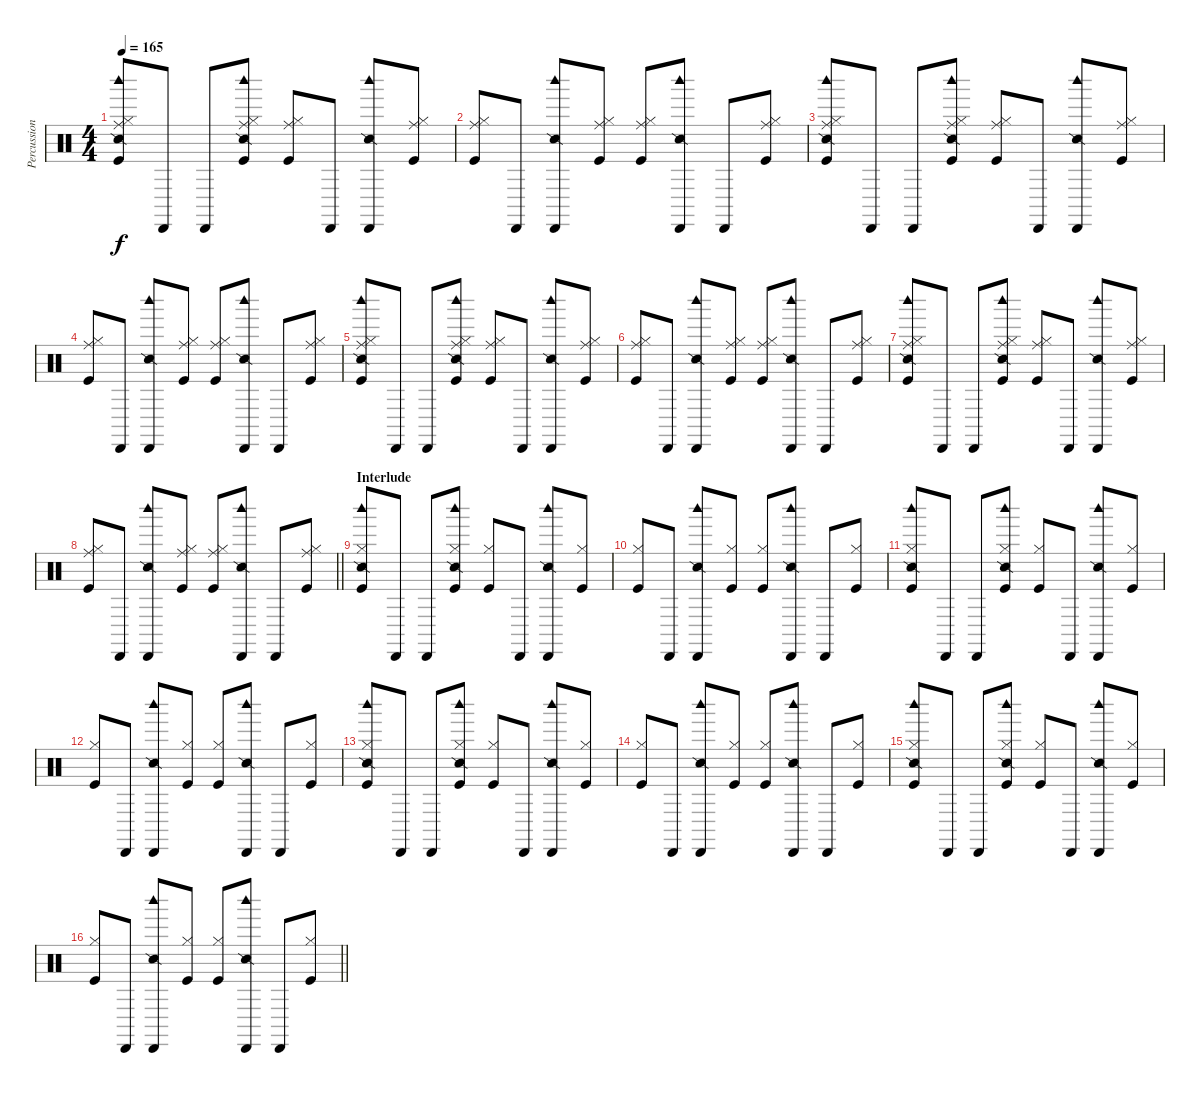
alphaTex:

\track ("Percussion" "Percussion") {instrument percussion}
\staff {score}
\articulation defaults
\ts (4 4)
\tempo 165
\clef neutral
\ks c
("Ride (middle)" "Snare (side stick) 2" "Hi-Hat (closed)" "Woodblock high (hit)" "Kick (hit)").8{dy f} "Cabasa (hit)".8 "Cabasa (hit)".8 ("Ride (middle)" "Snare (side stick) 2" "Hi-Hat (closed)" "Woodblock high (hit)" "Kick (hit)").8 ("Ride (middle)" "Hi-Hat (closed)" "Kick (hit)").8 "Cabasa (hit)".8 ("Snare (side stick) 2" "Cabasa (hit)" "Woodblock high (hit)").8 ("Ride (middle)" "Hi-Hat (closed)" "Kick (hit)").8 |
("Ride (middle)" "Hi-Hat (closed)" "Kick (hit)").8 "Cabasa (hit)".8 ("Snare (side stick) 2" "Cabasa (hit)" "Woodblock high (hit)").8 ("Ride (middle)" "Hi-Hat (closed)" "Kick (hit)").8 ("Ride (middle)" "Hi-Hat (closed)" "Kick (hit)").8 ("Snare (side stick) 2" "Cabasa (hit)" "Woodblock high (hit)").8 "Cabasa (hit)".8 ("Ride (middle)" "Hi-Hat (closed)" "Kick (hit)").8 |
("Ride (middle)" "Snare (side stick) 2" "Hi-Hat (closed)" "Woodblock high (hit)" "Kick (hit)").8 "Cabasa (hit)".8 "Cabasa (hit)".8 ("Ride (middle)" "Snare (side stick) 2" "Hi-Hat (closed)" "Woodblock high (hit)" "Kick (hit)").8 ("Ride (middle)" "Hi-Hat (closed)" "Kick (hit)").8 "Cabasa (hit)".8 ("Snare (side stick) 2" "Cabasa (hit)" "Woodblock high (hit)").8 ("Ride (middle)" "Hi-Hat (closed)" "Kick (hit)").8 |
("Ride (middle)" "Hi-Hat (closed)" "Kick (hit)").8 "Cabasa (hit)".8 ("Snare (side stick) 2" "Cabasa (hit)" "Woodblock high (hit)").8 ("Ride (middle)" "Hi-Hat (closed)" "Kick (hit)").8 ("Ride (middle)" "Hi-Hat (closed)" "Kick (hit)").8 ("Snare (side stick) 2" "Cabasa (hit)" "Woodblock high (hit)").8 "Cabasa (hit)".8 ("Ride (middle)" "Hi-Hat (closed)" "Kick (hit)").8 |
("Ride (middle)" "Snare (side stick) 2" "Hi-Hat (closed)" "Woodblock high (hit)" "Kick (hit)").8 "Cabasa (hit)".8 "Cabasa (hit)".8 ("Ride (middle)" "Snare (side stick) 2" "Hi-Hat (closed)" "Woodblock high (hit)" "Kick (hit)").8 ("Ride (middle)" "Hi-Hat (closed)" "Kick (hit)").8 "Cabasa (hit)".8 ("Snare (side stick) 2" "Cabasa (hit)" "Woodblock high (hit)").8 ("Ride (middle)" "Hi-Hat (closed)" "Kick (hit)").8 |
("Ride (middle)" "Hi-Hat (closed)" "Kick (hit)").8 "Cabasa (hit)".8 ("Snare (side stick) 2" "Cabasa (hit)" "Woodblock high (hit)").8 ("Ride (middle)" "Hi-Hat (closed)" "Kick (hit)").8 ("Ride (middle)" "Hi-Hat (closed)" "Kick (hit)").8 ("Snare (side stick) 2" "Cabasa (hit)" "Woodblock high (hit)").8 "Cabasa (hit)".8 ("Ride (middle)" "Hi-Hat (closed)" "Kick (hit)").8 |
("Ride (middle)" "Snare (side stick) 2" "Hi-Hat (closed)" "Woodblock high (hit)" "Kick (hit)").8 "Cabasa (hit)".8 "Cabasa (hit)".8 ("Ride (middle)" "Snare (side stick) 2" "Hi-Hat (closed)" "Woodblock high (hit)" "Kick (hit)").8 ("Ride (middle)" "Hi-Hat (closed)" "Kick (hit)").8 "Cabasa (hit)".8 ("Snare (side stick) 2" "Cabasa (hit)" "Woodblock high (hit)").8 ("Ride (middle)" "Hi-Hat (closed)" "Kick (hit)").8 |
\barLineRight lightlight
("Ride (middle)" "Hi-Hat (closed)" "Kick (hit)").8 "Cabasa (hit)".8 ("Snare (side stick) 2" "Cabasa (hit)" "Woodblock high (hit)").8 ("Ride (middle)" "Hi-Hat (closed)" "Kick (hit)").8 ("Ride (middle)" "Hi-Hat (closed)" "Kick (hit)").8 ("Snare (side stick) 2" "Cabasa (hit)" "Woodblock high (hit)").8 "Cabasa (hit)".8 ("Ride (middle)" "Hi-Hat (closed)" "Kick (hit)").8 |
\section ("" "Interlude")
("Snare (side stick) 2" "Hi-Hat (closed)" "Woodblock high (hit)" "Kick (hit)").8 "Cabasa (hit)".8 "Cabasa (hit)".8 ("Snare (side stick) 2" "Hi-Hat (closed)" "Woodblock high (hit)" "Kick (hit)").8 ("Hi-Hat (closed)" "Kick (hit)").8 "Cabasa (hit)".8 ("Snare (side stick) 2" "Cabasa (hit)" "Woodblock high (hit)").8 ("Hi-Hat (closed)" "Kick (hit)").8 |
("Hi-Hat (closed)" "Kick (hit)").8 "Cabasa (hit)".8 ("Snare (side stick) 2" "Cabasa (hit)" "Woodblock high (hit)").8 ("Hi-Hat (closed)" "Kick (hit)").8 ("Hi-Hat (closed)" "Kick (hit)").8 ("Snare (side stick) 2" "Cabasa (hit)" "Woodblock high (hit)").8 "Cabasa (hit)".8 ("Hi-Hat (closed)" "Kick (hit)").8 |
("Snare (side stick) 2" "Hi-Hat (closed)" "Woodblock high (hit)" "Kick (hit)").8 "Cabasa (hit)".8 "Cabasa (hit)".8 ("Snare (side stick) 2" "Hi-Hat (closed)" "Woodblock high (hit)" "Kick (hit)").8 ("Hi-Hat (closed)" "Kick (hit)").8 "Cabasa (hit)".8 ("Snare (side stick) 2" "Cabasa (hit)" "Woodblock high (hit)").8 ("Hi-Hat (closed)" "Kick (hit)").8 |
("Hi-Hat (closed)" "Kick (hit)").8 "Cabasa (hit)".8 ("Snare (side stick) 2" "Cabasa (hit)" "Woodblock high (hit)").8 ("Hi-Hat (closed)" "Kick (hit)").8 ("Hi-Hat (closed)" "Kick (hit)").8 ("Snare (side stick) 2" "Cabasa (hit)" "Woodblock high (hit)").8 "Cabasa (hit)".8 ("Hi-Hat (closed)" "Kick (hit)").8 |
("Snare (side stick) 2" "Hi-Hat (closed)" "Woodblock high (hit)" "Kick (hit)").8 "Cabasa (hit)".8 "Cabasa (hit)".8 ("Snare (side stick) 2" "Hi-Hat (closed)" "Woodblock high (hit)" "Kick (hit)").8 ("Hi-Hat (closed)" "Kick (hit)").8 "Cabasa (hit)".8 ("Snare (side stick) 2" "Cabasa (hit)" "Woodblock high (hit)").8 ("Hi-Hat (closed)" "Kick (hit)").8 |
("Hi-Hat (closed)" "Kick (hit)").8 "Cabasa (hit)".8 ("Snare (side stick) 2" "Cabasa (hit)" "Woodblock high (hit)").8 ("Hi-Hat (closed)" "Kick (hit)").8 ("Hi-Hat (closed)" "Kick (hit)").8 ("Snare (side stick) 2" "Cabasa (hit)" "Woodblock high (hit)").8 "Cabasa (hit)".8 ("Hi-Hat (closed)" "Kick (hit)").8 |
("Snare (side stick) 2" "Hi-Hat (closed)" "Woodblock high (hit)" "Kick (hit)").8 "Cabasa (hit)".8 "Cabasa (hit)".8 ("Snare (side stick) 2" "Hi-Hat (closed)" "Woodblock high (hit)" "Kick (hit)").8 ("Hi-Hat (closed)" "Kick (hit)").8 "Cabasa (hit)".8 ("Snare (side stick) 2" "Cabasa (hit)" "Woodblock high (hit)").8 ("Hi-Hat (closed)" "Kick (hit)").8 |
\barLineRight lightlight
("Hi-Hat (closed)" "Kick (hit)").8 "Cabasa (hit)".8 ("Snare (side stick) 2" "Cabasa (hit)" "Woodblock high (hit)").8 ("Hi-Hat (closed)" "Kick (hit)").8 ("Hi-Hat (closed)" "Kick (hit)").8 ("Snare (side stick) 2" "Cabasa (hit)" "Woodblock high (hit)").8 "Cabasa (hit)".8 ("Hi-Hat (closed)" "Kick (hit)").8
